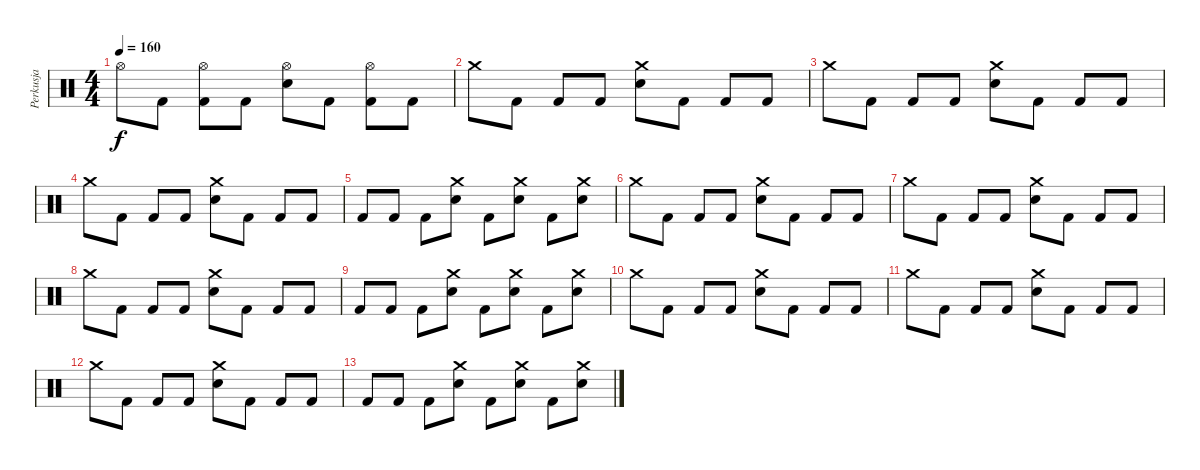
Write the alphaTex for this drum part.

\track ("Perkusja" "Perkusja") {instrument percussion}
\staff {score}
\articulation defaults
\ts (4 4)
\tempo 160
\clef neutral
\ks c "Hi-Hat (open)".8{dy f} "Kick (hit) 2".8
("Hi-Hat (open)" "Kick (hit) 2").8 "Kick (hit) 2".8 ("Hi-Hat (open)" "Electric Snare (hit)").8 "Kick (hit) 2".8 ("Hi-Hat (open)" "Kick (hit) 2").8 "Kick (hit) 2".8 |
"Crash medium (hit)".8 "Kick (hit) 2".8 "Kick (hit) 2".8 "Kick (hit) 2".8 ("Crash medium (hit)" "Electric Snare (hit)").8 "Kick (hit) 2".8 "Kick (hit) 2".8 "Kick (hit) 2".8 |
"Crash medium (hit)".8 "Kick (hit) 2".8 "Kick (hit) 2".8 "Kick (hit) 2".8 ("Crash medium (hit)" "Electric Snare (hit)").8 "Kick (hit) 2".8 "Kick (hit) 2".8 "Kick (hit) 2".8 |
"Crash medium (hit)".8 "Kick (hit) 2".8 "Kick (hit) 2".8 "Kick (hit) 2".8 ("Crash medium (hit)" "Electric Snare (hit)").8 "Kick (hit) 2".8 "Kick (hit) 2".8 "Kick (hit) 2".8 |
"Kick (hit) 2".8 "Kick (hit) 2".8 "Kick (hit) 2".8 ("Crash medium (hit)" "Electric Snare (hit)").8 "Kick (hit) 2".8 ("Crash medium (hit)" "Electric Snare (hit)").8 "Kick (hit) 2".8 ("Crash medium (hit)" "Electric Snare (hit)").8 |
"Crash medium (hit)".8 "Kick (hit) 2".8 "Kick (hit) 2".8 "Kick (hit) 2".8 ("Crash medium (hit)" "Electric Snare (hit)").8 "Kick (hit) 2".8 "Kick (hit) 2".8 "Kick (hit) 2".8 |
"Crash medium (hit)".8 "Kick (hit) 2".8 "Kick (hit) 2".8 "Kick (hit) 2".8 ("Crash medium (hit)" "Electric Snare (hit)").8 "Kick (hit) 2".8 "Kick (hit) 2".8 "Kick (hit) 2".8 |
"Crash medium (hit)".8 "Kick (hit) 2".8 "Kick (hit) 2".8 "Kick (hit) 2".8 ("Crash medium (hit)" "Electric Snare (hit)").8 "Kick (hit) 2".8 "Kick (hit) 2".8 "Kick (hit) 2".8 |
"Kick (hit) 2".8 "Kick (hit) 2".8 "Kick (hit) 2".8 ("Crash medium (hit)" "Electric Snare (hit)").8 "Kick (hit) 2".8 ("Crash medium (hit)" "Electric Snare (hit)").8 "Kick (hit) 2".8 ("Crash medium (hit)" "Electric Snare (hit)").8 |
"Crash medium (hit)".8 "Kick (hit) 2".8 "Kick (hit) 2".8 "Kick (hit) 2".8 ("Crash medium (hit)" "Electric Snare (hit)").8 "Kick (hit) 2".8 "Kick (hit) 2".8 "Kick (hit) 2".8 |
"Crash medium (hit)".8 "Kick (hit) 2".8 "Kick (hit) 2".8 "Kick (hit) 2".8 ("Crash medium (hit)" "Electric Snare (hit)").8 "Kick (hit) 2".8 "Kick (hit) 2".8 "Kick (hit) 2".8 |
"Crash medium (hit)".8 "Kick (hit) 2".8 "Kick (hit) 2".8 "Kick (hit) 2".8 ("Crash medium (hit)" "Electric Snare (hit)").8 "Kick (hit) 2".8 "Kick (hit) 2".8 "Kick (hit) 2".8 |
"Kick (hit) 2".8 "Kick (hit) 2".8 "Kick (hit) 2".8 ("Crash medium (hit)" "Electric Snare (hit)").8 "Kick (hit) 2".8 ("Crash medium (hit)" "Electric Snare (hit)").8 "Kick (hit) 2".8 ("Crash medium (hit)" "Electric Snare (hit)").8
